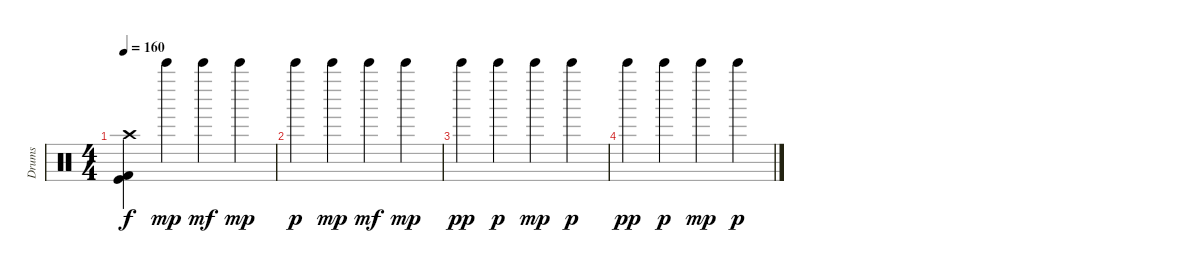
\track ("Drums" "Drums") {instrument percussion}
\staff {score}
\articulation defaults
\ts (4 4)
\tempo 160
\clef neutral
\ks c
("Crash high (hit)" "Kick (hit) 2" "Kick (hit)").4{dy f} "Bell Tree (hit)".4{dy mp} "Bell Tree (hit)".4{dy mf} "Bell Tree (hit)".4{dy mp} |
"Bell Tree (hit)".4{dy p} "Bell Tree (hit)".4{dy mp} "Bell Tree (hit)".4{dy mf} "Bell Tree (hit)".4{dy mp} |
"Bell Tree (hit)".4{dy pp} "Bell Tree (hit)".4{dy p} "Bell Tree (hit)".4{dy mp} "Bell Tree (hit)".4{dy p} |
"Bell Tree (hit)".4{dy pp} "Bell Tree (hit)".4{dy p} "Bell Tree (hit)".4{dy mp} "Bell Tree (hit)".4{dy p}
